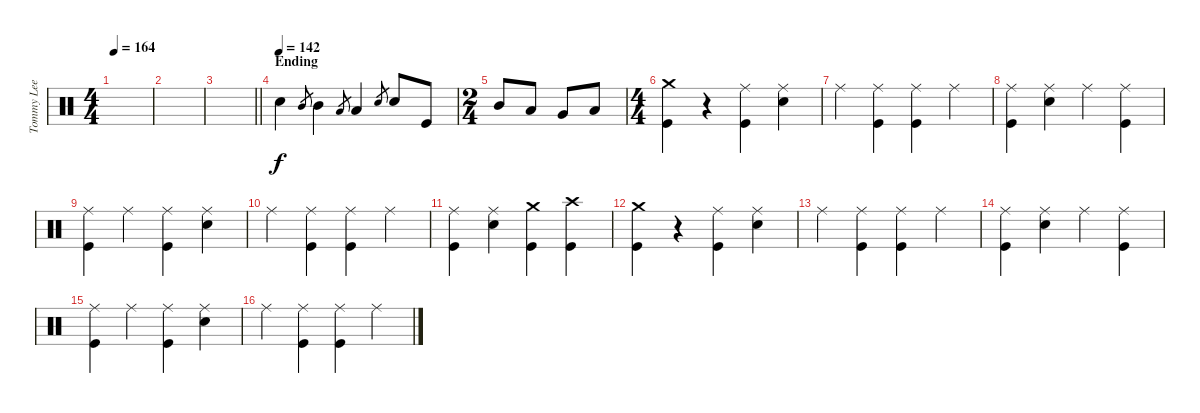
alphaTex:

\track ("Tommy Lee" "Tommy Lee") {instrument percussion}
\staff {score}
\articulation defaults
\ts (4 4)
\tempo 164
\clef neutral
\ks c
|
|
\barLineRight lightlight
|
\section ("" "Ending")
\tempo (142)
"Snare (hit) 2".4 "Mid Tom (hit)".8{gr} "Mid Tom (hit)".4 "Low Tom (hit)".8{gr} "Low Tom (hit)".4 "Snare (hit) 2".8{gr} "Snare (hit) 2".8 "Kick (hit)".8 |
\ts (2 4)
"Mid Tom (hit)".8 "Low Tom (hit)".8 "Very Low Tom (hit)".8 "Low Floor Tom (hit)".8 |
\ts (4 4)
("Crash medium (hit)" "Kick (hit)").4 r.4 ("Ride (middle)" "Kick (hit)").4 ("Ride (middle)" "Snare (hit) 2").4 |
"Ride (middle)".4 ("Ride (middle)" "Kick (hit)").4 ("Ride (middle)" "Kick (hit)").4 "Ride (middle)".4 |
("Ride (middle)" "Kick (hit)").4 ("Ride (middle)" "Snare (hit) 2").4 "Ride (middle)".4 ("Ride (middle)" "Kick (hit)").4 |
("Ride (middle)" "Kick (hit)").4 "Ride (middle)".4 ("Ride (middle)" "Kick (hit)").4 ("Ride (middle)" "Snare (hit) 2").4 |
"Ride (middle)".4 ("Ride (middle)" "Kick (hit)").4 ("Ride (middle)" "Kick (hit)").4 "Ride (middle)".4 |
("Ride (middle)" "Kick (hit)").4 ("Ride (middle)" "Snare (hit) 2").4 ("Crash medium (hit)" "Kick (hit)").4 ("Crash high (hit)" "Kick (hit)").4 |
("Crash medium (hit)" "Kick (hit)").4 r.4 ("Ride (middle)" "Kick (hit)").4 ("Ride (middle)" "Snare (hit) 2").4 |
"Ride (middle)".4 ("Ride (middle)" "Kick (hit)").4 ("Ride (middle)" "Kick (hit)").4 "Ride (middle)".4 |
("Ride (middle)" "Kick (hit)").4 ("Ride (middle)" "Snare (hit) 2").4 "Ride (middle)".4 ("Ride (middle)" "Kick (hit)").4 |
("Ride (middle)" "Kick (hit)").4 "Ride (middle)".4 ("Ride (middle)" "Kick (hit)").4 ("Ride (middle)" "Snare (hit) 2").4 |
"Ride (middle)".4 ("Ride (middle)" "Kick (hit)").4 ("Ride (middle)" "Kick (hit)").4 "Ride (middle)".4
